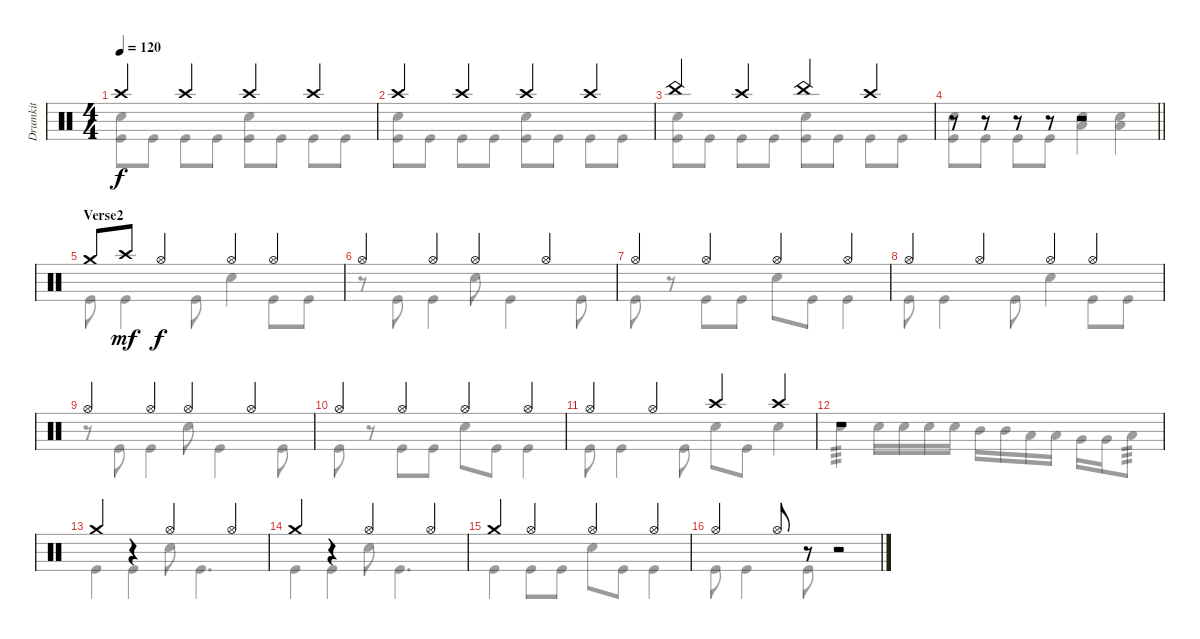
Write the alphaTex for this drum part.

\track ("Drumkit" "Drumkit") {instrument percussion}
\staff {score}
\articulation defaults
\voice
\ts (4 4)
\tempo 120
\clef neutral
\ks c "Crash high (hit)".4{dy f} "Crash high (hit)".4 "Crash high (hit)".4 "Crash high (hit)".4
|
"Crash high (hit)".4 "Crash high (hit)".4 "Crash high (hit)".4 "Crash high (hit)".4 |
"China (hit)".4 "Crash high (hit)".4 "China (hit)".4 "Crash high (hit)".4 |
\barLineRight lightlight
r.8 r.8 r.8 r.8 r.2 |
\section ("" "Verse2")
"Crash medium (hit)".8 "Crash high (hit)".8{dy mf} "Hi-Hat (open)".4{dy f} "Hi-Hat (open)".4 "Hi-Hat (open)".4 |
"Hi-Hat (open)".4 "Hi-Hat (open)".4 "Hi-Hat (open)".4 "Hi-Hat (open)".4 |
"Hi-Hat (open)".4 "Hi-Hat (open)".4 "Hi-Hat (open)".4 "Hi-Hat (open)".4 |
"Hi-Hat (open)".4 "Hi-Hat (open)".4 "Hi-Hat (open)".4 "Hi-Hat (open)".4 |
"Hi-Hat (open)".4 "Hi-Hat (open)".4 "Hi-Hat (open)".4 "Hi-Hat (open)".4 |
"Hi-Hat (open)".4 "Hi-Hat (open)".4 "Hi-Hat (open)".4 "Hi-Hat (open)".4 |
"Hi-Hat (open)".4 "Hi-Hat (open)".4 "Crash high (hit)".4 "Crash high (hit)".4 |
r.1 |
"Crash medium (hit)".4 r.4 "Hi-Hat (open)".4 "Hi-Hat (open)".4 |
"Crash medium (hit)".4 r.4 "Hi-Hat (open)".4 "Hi-Hat (open)".4 |
"Crash medium (hit)".4 "Hi-Hat (open)".4 "Hi-Hat (open)".4 "Hi-Hat (open)".4 |
"Hi-Hat (open)".4 "Hi-Hat (open)".8 r.8 r.2
\voice
\clef neutral
\ottava regular
\simile none
\ks c
("Snare (hit) 2" "Kick (hit)").8{dy f} "Kick (hit)".8 "Kick (hit)".8 "Kick (hit)".8 ("Snare (hit) 2" "Kick (hit)").8 "Kick (hit)".8 "Kick (hit)".8 "Kick (hit)".8 |
("Snare (hit) 2" "Kick (hit)").8 "Kick (hit)".8 "Kick (hit)".8 "Kick (hit)".8 ("Snare (hit) 2" "Kick (hit)").8 "Kick (hit)".8 "Kick (hit)".8 "Kick (hit)".8 |
("Snare (hit) 2" "Kick (hit)").8 "Kick (hit)".8 "Kick (hit)".8 "Kick (hit)".8 ("Snare (hit) 2" "Kick (hit)").8 "Kick (hit)".8 "Kick (hit)".8 "Kick (hit)".8 |
\barLineRight lightlight
("Snare (hit) 2" "Kick (hit)").8 "Kick (hit)".8 "Kick (hit)".8 "Kick (hit)".8 ("Snare (hit) 2" "Low Tom (hit)").4 ("Snare (hit) 2" "Low Floor Tom (hit)").4 |
"Kick (hit)".8 "Kick (hit)".4 "Kick (hit)".8 "Snare (hit) 2".4 "Kick (hit)".8 "Kick (hit)".8 |
r.8 "Kick (hit)".8 "Kick (hit)".4 "Snare (hit) 2".8 "Kick (hit)".4 "Kick (hit)".8 |
"Kick (hit)".8 r.8 "Kick (hit)".8 "Kick (hit)".8 "Snare (hit) 2".8 "Kick (hit)".8 "Kick (hit)".4 |
"Kick (hit)".8 "Kick (hit)".4 "Kick (hit)".8 "Snare (hit) 2".4 "Kick (hit)".8 "Kick (hit)".8 |
r.8 "Kick (hit)".8 "Kick (hit)".4 "Snare (hit) 2".8 "Kick (hit)".4 "Kick (hit)".8 |
"Kick (hit)".8 r.8 "Kick (hit)".8 "Kick (hit)".8 "Snare (hit) 2".8 "Kick (hit)".8 "Kick (hit)".4 |
"Kick (hit)".8 "Kick (hit)".4 "Kick (hit)".8 "Snare (hit) 2".8 "Kick (hit)".8 "Snare (hit) 2".4 |
"Snare (hit) 2".4{tp 3} "Snare (hit) 2".16 "Snare (hit) 2".16 "Snare (hit) 2".16 "Snare (hit) 2".16 "Mid Tom (hit)".16 "Mid Tom (hit)".16 "Low Tom (hit)".16 "Low Tom (hit)".16 "Very Low Tom (hit)".16 "Very Low Tom (hit)".16 "Low Floor Tom (hit)".8{tp 3} |
"Kick (hit)".4 "Kick (hit)".4 "Snare (hit) 2".8 "Kick (hit)".4{d} |
"Kick (hit)".4 "Kick (hit)".4 "Snare (hit) 2".8 "Kick (hit)".4{d} |
"Kick (hit)".4 "Kick (hit)".8 "Kick (hit)".8 "Snare (hit) 2".8 "Kick (hit)".8 "Kick (hit)".4 |
"Kick (hit)".8 "Kick (hit)".4 "Kick (hit)".8 r.2
